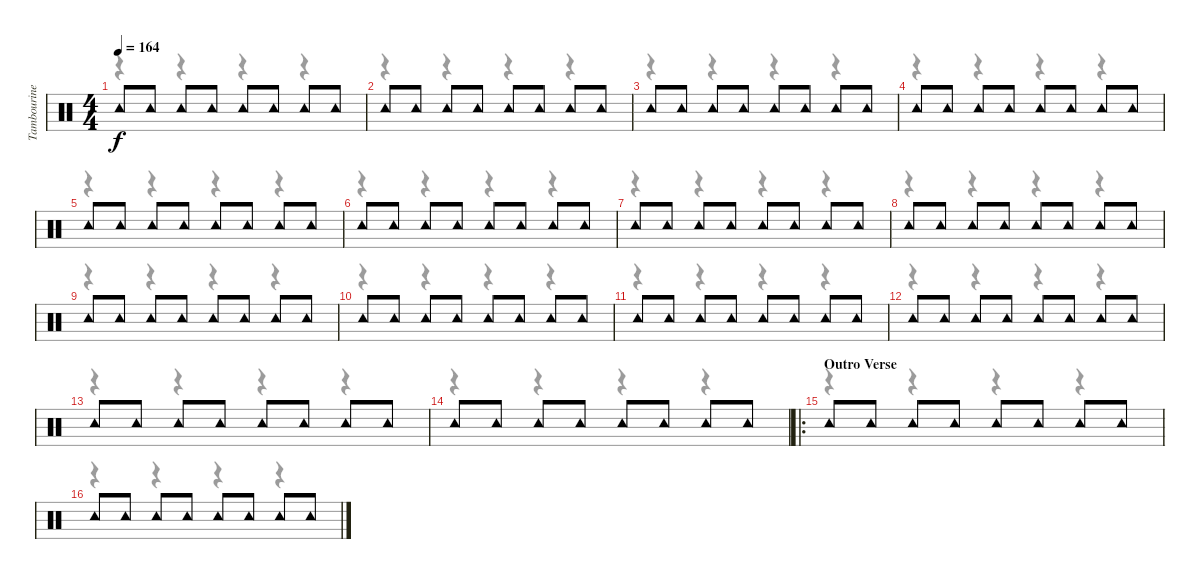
\track ("Tambourine" "Tambourine") {instrument percussion}
\staff {score}
\articulation defaults
\voice
\ts (4 4)
\tempo 164
\clef neutral
\ks c "Tambourine (hit)".8{dy f} "Tambourine (hit)".8 "Tambourine (hit)".8 "Tambourine (hit)".8 "Tambourine (hit)".8 "Tambourine (hit)".8 "Tambourine (hit)".8 "Tambourine (hit)".8
|
"Tambourine (hit)".8 "Tambourine (hit)".8 "Tambourine (hit)".8 "Tambourine (hit)".8 "Tambourine (hit)".8 "Tambourine (hit)".8 "Tambourine (hit)".8 "Tambourine (hit)".8 |
"Tambourine (hit)".8 "Tambourine (hit)".8 "Tambourine (hit)".8 "Tambourine (hit)".8 "Tambourine (hit)".8 "Tambourine (hit)".8 "Tambourine (hit)".8 "Tambourine (hit)".8 |
"Tambourine (hit)".8 "Tambourine (hit)".8 "Tambourine (hit)".8 "Tambourine (hit)".8 "Tambourine (hit)".8 "Tambourine (hit)".8 "Tambourine (hit)".8 "Tambourine (hit)".8 |
"Tambourine (hit)".8 "Tambourine (hit)".8 "Tambourine (hit)".8 "Tambourine (hit)".8 "Tambourine (hit)".8 "Tambourine (hit)".8 "Tambourine (hit)".8 "Tambourine (hit)".8 |
"Tambourine (hit)".8 "Tambourine (hit)".8 "Tambourine (hit)".8 "Tambourine (hit)".8 "Tambourine (hit)".8 "Tambourine (hit)".8 "Tambourine (hit)".8 "Tambourine (hit)".8 |
"Tambourine (hit)".8 "Tambourine (hit)".8 "Tambourine (hit)".8 "Tambourine (hit)".8 "Tambourine (hit)".8 "Tambourine (hit)".8 "Tambourine (hit)".8 "Tambourine (hit)".8 |
"Tambourine (hit)".8 "Tambourine (hit)".8 "Tambourine (hit)".8 "Tambourine (hit)".8 "Tambourine (hit)".8 "Tambourine (hit)".8 "Tambourine (hit)".8 "Tambourine (hit)".8 |
"Tambourine (hit)".8 "Tambourine (hit)".8 "Tambourine (hit)".8 "Tambourine (hit)".8 "Tambourine (hit)".8 "Tambourine (hit)".8 "Tambourine (hit)".8 "Tambourine (hit)".8 |
"Tambourine (hit)".8 "Tambourine (hit)".8 "Tambourine (hit)".8 "Tambourine (hit)".8 "Tambourine (hit)".8 "Tambourine (hit)".8 "Tambourine (hit)".8 "Tambourine (hit)".8 |
"Tambourine (hit)".8 "Tambourine (hit)".8 "Tambourine (hit)".8 "Tambourine (hit)".8 "Tambourine (hit)".8 "Tambourine (hit)".8 "Tambourine (hit)".8 "Tambourine (hit)".8 |
"Tambourine (hit)".8 "Tambourine (hit)".8 "Tambourine (hit)".8 "Tambourine (hit)".8 "Tambourine (hit)".8 "Tambourine (hit)".8 "Tambourine (hit)".8 "Tambourine (hit)".8 |
"Tambourine (hit)".8 "Tambourine (hit)".8 "Tambourine (hit)".8 "Tambourine (hit)".8 "Tambourine (hit)".8 "Tambourine (hit)".8 "Tambourine (hit)".8 "Tambourine (hit)".8 |
"Tambourine (hit)".8 "Tambourine (hit)".8 "Tambourine (hit)".8 "Tambourine (hit)".8 "Tambourine (hit)".8 "Tambourine (hit)".8 "Tambourine (hit)".8 "Tambourine (hit)".8 |
\ro
\section ("" "Outro Verse")
"Tambourine (hit)".8 "Tambourine (hit)".8 "Tambourine (hit)".8 "Tambourine (hit)".8 "Tambourine (hit)".8 "Tambourine (hit)".8 "Tambourine (hit)".8 "Tambourine (hit)".8 |
"Tambourine (hit)".8 "Tambourine (hit)".8 "Tambourine (hit)".8 "Tambourine (hit)".8 "Tambourine (hit)".8 "Tambourine (hit)".8 "Tambourine (hit)".8 "Tambourine (hit)".8
\voice
\clef neutral
\ottava regular
\simile none
\ks c
r.4{dy f} r.4 r.4 r.4 |
r.4 r.4 r.4 r.4 |
r.4 r.4 r.4 r.4 |
r.4 r.4 r.4 r.4 |
r.4 r.4 r.4 r.4 |
r.4 r.4 r.4 r.4 |
r.4 r.4 r.4 r.4 |
r.4 r.4 r.4 r.4 |
r.4 r.4 r.4 r.4 |
r.4 r.4 r.4 r.4 |
r.4 r.4 r.4 r.4 |
r.4 r.4 r.4 r.4 |
r.4 r.4 r.4 r.4 |
r.4 r.4 r.4 r.4 |
r.4 r.4 r.4 r.4 |
r.4 r.4 r.4 r.4
